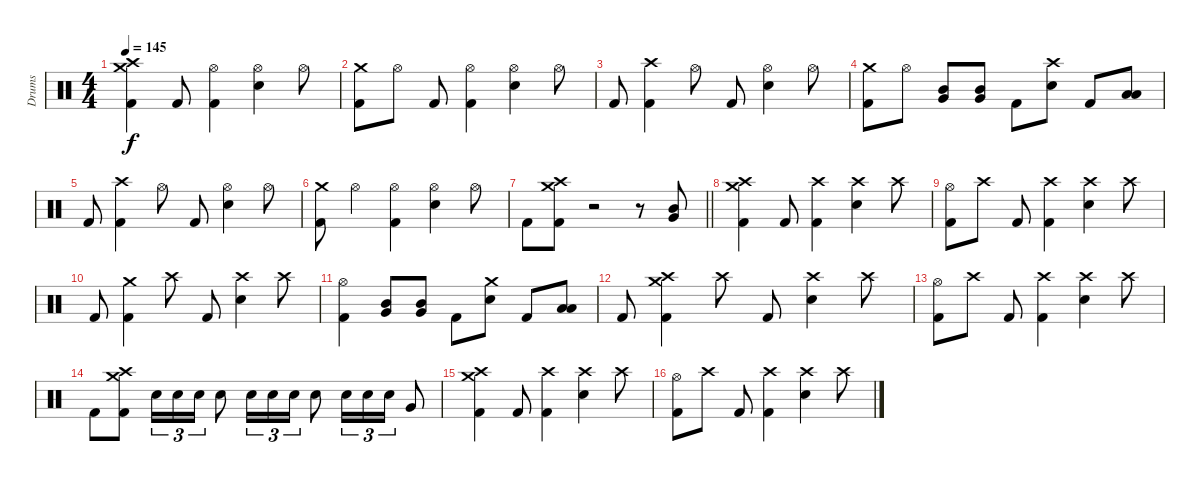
\track ("Drums" "Drums") {instrument percussion}
\staff {score}
\articulation defaults
\ts (4 4)
\tempo 145
\clef neutral
\ks c
("Crash medium (hit)" "Crash high (hit)" "Kick (hit) 2").4{dy f} "Kick (hit) 2".8 ("Hi-Hat (open)" "Kick (hit) 2").4 ("Hi-Hat (open)" "Electric Snare (hit)").4 "Hi-Hat (open)".8 |
("Crash medium (hit)" "Kick (hit) 2").8 "Hi-Hat (open)".8 "Kick (hit) 2".8 ("Hi-Hat (open)" "Kick (hit) 2").4 ("Hi-Hat (open)" "Electric Snare (hit)").4 "Hi-Hat (open)".8 |
"Kick (hit) 2".8 ("Crash high (hit)" "Kick (hit) 2").4 "Hi-Hat (open)".8 "Kick (hit) 2".8 ("Hi-Hat (open)" "Electric Snare (hit)").4 "Hi-Hat (open)".8 |
("Crash medium (hit)" "Kick (hit) 2").8 "Hi-Hat (open)".8 ("Mid Tom (hit)" "Very Low Tom (hit)").8 ("Mid Tom (hit)" "Very Low Tom (hit)").8 "Kick (hit) 2".8 ("Crash high (hit)" "Electric Snare (hit)").8 "Kick (hit) 2".8 ("Low Tom (hit)" "Low Floor Tom (hit)").8 |
"Kick (hit) 2".8 ("Crash high (hit)" "Kick (hit) 2").4 "Hi-Hat (open)".8 "Kick (hit) 2".8 ("Hi-Hat (open)" "Electric Snare (hit)").4 "Hi-Hat (open)".8 |
("Crash medium (hit)" "Kick (hit) 2").8 "Hi-Hat (open)".4 ("Hi-Hat (open)" "Kick (hit) 2").4 ("Hi-Hat (open)" "Electric Snare (hit)").4 "Hi-Hat (open)".8 |
\barLineRight lightlight "Kick (hit) 2".8
("Crash medium (hit)" "Crash high (hit)" "Kick (hit) 2").8 r.2{volume 0} r.8 ("Mid Tom (hit)" "Very Low Tom (hit)").8{volume 13} |
("Crash medium (hit)" "Crash high (hit)" "Kick (hit) 2").4 "Kick (hit) 2".8 ("Crash high (hit)" "Kick (hit) 2").4 ("Crash high (hit)" "Electric Snare (hit)").4 "Crash high (hit)".8 |
("Hi-Hat (open)" "Kick (hit) 2").8 "Crash high (hit)".8 "Kick (hit) 2".8 ("Crash high (hit)" "Kick (hit) 2").4 ("Crash high (hit)" "Electric Snare (hit)").4 "Crash high (hit)".8 |
"Kick (hit) 2".8 ("Crash medium (hit)" "Kick (hit) 2").4 "Crash high (hit)".8 "Kick (hit) 2".8 ("Crash high (hit)" "Electric Snare (hit)").4 "Crash high (hit)".8 |
("Hi-Hat (open)" "Kick (hit) 2").4 ("Mid Tom (hit)" "Very Low Tom (hit)").8 ("Mid Tom (hit)" "Very Low Tom (hit)").8 "Kick (hit) 2".8 ("Crash medium (hit)" "Electric Snare (hit)").8 "Kick (hit) 2".8 ("Low Tom (hit)" "Low Floor Tom (hit)").8 |
"Kick (hit) 2".8 ("Crash medium (hit)" "Crash high (hit)" "Kick (hit) 2").4 "Crash high (hit)".8 "Kick (hit) 2".8 ("Crash high (hit)" "Electric Snare (hit)").4 "Crash high (hit)".8 |
("Hi-Hat (open)" "Kick (hit) 2").8 "Crash high (hit)".8 "Kick (hit) 2".8 ("Crash high (hit)" "Kick (hit) 2").4 ("Crash high (hit)" "Electric Snare (hit)").4 "Crash high (hit)".8 |
"Kick (hit) 2".8 ("Crash medium (hit)" "Crash high (hit)" "Kick (hit) 2").8 "Electric Snare (hit)".16{tu (3 2)} "Electric Snare (hit)".16{tu (3 2)} "Electric Snare (hit)".16{tu (3 2)} "Electric Snare (hit)".8 "Electric Snare (hit)".16{tu (3 2)} "Electric Snare (hit)".16{tu (3 2)} "Electric Snare (hit)".16{tu (3 2)} "Electric Snare (hit)".8 "Electric Snare (hit)".16{tu (3 2)} "Electric Snare (hit)".16{tu (3 2)} "Electric Snare (hit)".16{tu (3 2)} "Very Low Tom (hit)".8 |
("Crash medium (hit)" "Crash high (hit)" "Kick (hit) 2").4 "Kick (hit) 2".8 ("Crash high (hit)" "Kick (hit) 2").4 ("Crash high (hit)" "Electric Snare (hit)").4 "Crash high (hit)".8 |
("Hi-Hat (open)" "Kick (hit) 2").8 "Crash high (hit)".8 "Kick (hit) 2".8 ("Crash high (hit)" "Kick (hit) 2").4 ("Crash high (hit)" "Electric Snare (hit)").4 "Crash high (hit)".8
